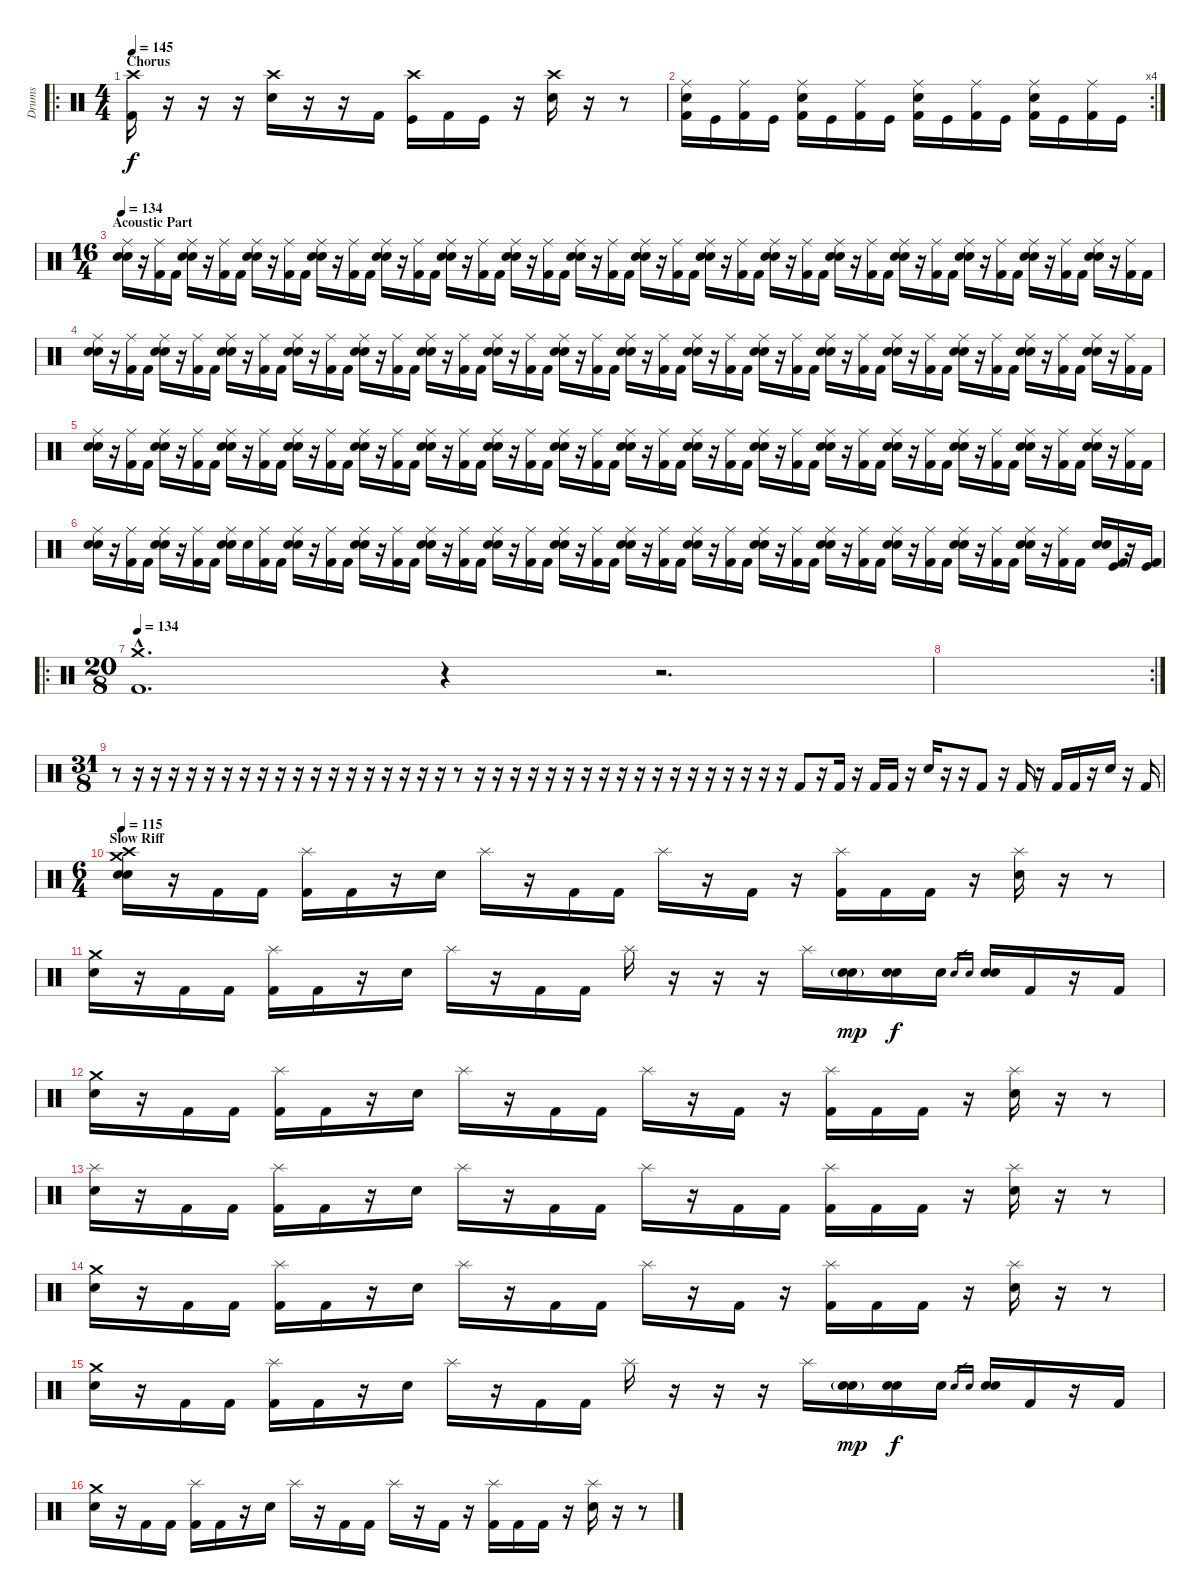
\track ("Drums" "Drums") {instrument percussion}
\staff {score}
\articulation defaults
\ro
\ts (4 4)
\section ("" "Chorus")
\tempo 145
\clef neutral
\ks c
("Kick (hit) 2" "Crash high (hit)").16{dy f} r.16 r.16 r.16 ("Electric Snare (hit)" "Crash high (hit)").16 r.16 r.16 "Kick (hit) 2".16 ("Kick (hit)" "Crash high (hit)").16 "Kick (hit) 2".16 "Kick (hit)".16 r.16 ("Electric Snare (hit)" "Crash high (hit)").16 r.16 r.8 |
\rc 4
("Kick (hit) 2" "Electric Snare (hit)" "Ride (middle)").16 "Kick (hit)".16 ("Kick (hit) 2" "Ride (middle)").16 "Kick (hit)".16 ("Kick (hit) 2" "Electric Snare (hit)" "Ride (middle)").16 "Kick (hit)".16 ("Kick (hit) 2" "Ride (middle)").16 "Kick (hit)".16 ("Kick (hit) 2" "Electric Snare (hit)" "Ride (middle)").16 "Kick (hit)".16 ("Kick (hit) 2" "Ride (middle)").16 "Kick (hit)".16 ("Kick (hit) 2" "Electric Snare (hit)" "Ride (middle)").16 "Kick (hit)".16 ("Kick (hit) 2" "Ride (middle)").16 "Kick (hit)".16 |
\ts (16 4)
\section ("" "Acoustic Part")
\tempo 134
("Electric Snare (hit)" "Electric Snare (hit)" "Ride (middle)").16 r.16 ("Kick (hit) 2" "Ride (middle)").16 "Kick (hit) 2".16 ("Electric Snare (hit)" "Electric Snare (hit)" "Ride (middle)").16 r.16 ("Kick (hit) 2" "Ride (middle)").16 "Kick (hit) 2".16 ("Electric Snare (hit)" "Electric Snare (hit)" "Ride (middle)").16 r.16 ("Kick (hit) 2" "Ride (middle)").16 "Kick (hit) 2".16 ("Electric Snare (hit)" "Electric Snare (hit)" "Ride (middle)").16 r.16 ("Kick (hit) 2" "Ride (middle)").16 "Kick (hit) 2".16 ("Electric Snare (hit)" "Electric Snare (hit)" "Ride (middle)").16 r.16 ("Kick (hit) 2" "Ride (middle)").16 "Kick (hit) 2".16 ("Electric Snare (hit)" "Electric Snare (hit)" "Ride (middle)").16 r.16 ("Kick (hit) 2" "Ride (middle)").16 "Kick (hit) 2".16 ("Electric Snare (hit)" "Electric Snare (hit)" "Ride (middle)").16 r.16 ("Kick (hit) 2" "Ride (middle)").16 "Kick (hit) 2".16 ("Electric Snare (hit)" "Electric Snare (hit)" "Ride (middle)").16 r.16 ("Kick (hit) 2" "Ride (middle)").16 "Kick (hit) 2".16 ("Electric Snare (hit)" "Electric Snare (hit)" "Ride (middle)").16 r.16 ("Kick (hit) 2" "Ride (middle)").16 "Kick (hit) 2".16 ("Electric Snare (hit)" "Electric Snare (hit)" "Ride (middle)").16 r.16 ("Kick (hit) 2" "Ride (middle)").16 "Kick (hit) 2".16 ("Electric Snare (hit)" "Electric Snare (hit)" "Ride (middle)").16 r.16 ("Kick (hit) 2" "Ride (middle)").16 "Kick (hit) 2".16 ("Electric Snare (hit)" "Electric Snare (hit)" "Ride (middle)").16 r.16 ("Kick (hit) 2" "Ride (middle)").16 "Kick (hit) 2".16 ("Electric Snare (hit)" "Electric Snare (hit)" "Ride (middle)").16 r.16 ("Kick (hit) 2" "Ride (middle)").16 "Kick (hit) 2".16 ("Electric Snare (hit)" "Electric Snare (hit)" "Ride (middle)").16 r.16 ("Kick (hit) 2" "Ride (middle)").16 "Kick (hit) 2".16 ("Electric Snare (hit)" "Electric Snare (hit)" "Ride (middle)").16 r.16 ("Kick (hit) 2" "Ride (middle)").16 "Kick (hit) 2".16 ("Electric Snare (hit)" "Electric Snare (hit)" "Ride (middle)").16 r.16 ("Kick (hit) 2" "Ride (middle)").16 "Kick (hit) 2".16 |
("Electric Snare (hit)" "Electric Snare (hit)" "Ride (middle)").16 r.16 ("Kick (hit) 2" "Ride (middle)").16 "Kick (hit) 2".16 ("Electric Snare (hit)" "Electric Snare (hit)" "Ride (middle)").16 r.16 ("Kick (hit) 2" "Ride (middle)").16 "Kick (hit) 2".16 ("Electric Snare (hit)" "Electric Snare (hit)" "Ride (middle)").16 r.16 ("Kick (hit) 2" "Ride (middle)").16 "Kick (hit) 2".16 ("Electric Snare (hit)" "Electric Snare (hit)" "Ride (middle)").16 r.16 ("Kick (hit) 2" "Ride (middle)").16 "Kick (hit) 2".16 ("Electric Snare (hit)" "Electric Snare (hit)" "Ride (middle)").16 r.16 ("Kick (hit) 2" "Ride (middle)").16 "Kick (hit) 2".16 ("Electric Snare (hit)" "Electric Snare (hit)" "Ride (middle)").16 r.16 ("Kick (hit) 2" "Ride (middle)").16 "Kick (hit) 2".16 ("Electric Snare (hit)" "Electric Snare (hit)" "Ride (middle)").16 r.16 ("Kick (hit) 2" "Ride (middle)").16 "Kick (hit) 2".16 ("Electric Snare (hit)" "Electric Snare (hit)" "Ride (middle)").16 r.16 ("Kick (hit) 2" "Ride (middle)").16 "Kick (hit) 2".16 ("Electric Snare (hit)" "Electric Snare (hit)" "Ride (middle)").16 r.16 ("Kick (hit) 2" "Ride (middle)").16 "Kick (hit) 2".16 ("Electric Snare (hit)" "Electric Snare (hit)" "Ride (middle)").16 r.16 ("Kick (hit) 2" "Ride (middle)").16 "Kick (hit) 2".16 ("Electric Snare (hit)" "Electric Snare (hit)" "Ride (middle)").16 r.16 ("Kick (hit) 2" "Ride (middle)").16 "Kick (hit) 2".16 ("Electric Snare (hit)" "Electric Snare (hit)" "Ride (middle)").16 r.16 ("Kick (hit) 2" "Ride (middle)").16 "Kick (hit) 2".16 ("Electric Snare (hit)" "Electric Snare (hit)" "Ride (middle)").16 r.16 ("Kick (hit) 2" "Ride (middle)").16 "Kick (hit) 2".16 ("Electric Snare (hit)" "Electric Snare (hit)" "Ride (middle)").16 r.16 ("Kick (hit) 2" "Ride (middle)").16 "Kick (hit) 2".16 ("Electric Snare (hit)" "Electric Snare (hit)" "Ride (middle)").16 r.16 ("Kick (hit) 2" "Ride (middle)").16 "Kick (hit) 2".16 ("Electric Snare (hit)" "Electric Snare (hit)" "Ride (middle)").16 r.16 ("Kick (hit) 2" "Ride (middle)").16 "Kick (hit) 2".16 |
("Electric Snare (hit)" "Electric Snare (hit)" "Ride (middle)").16 r.16 ("Kick (hit) 2" "Ride (middle)").16 "Kick (hit) 2".16 ("Electric Snare (hit)" "Electric Snare (hit)" "Ride (middle)").16 r.16 ("Kick (hit) 2" "Ride (middle)").16 "Kick (hit) 2".16 ("Electric Snare (hit)" "Electric Snare (hit)" "Ride (middle)").16 r.16 ("Kick (hit) 2" "Ride (middle)").16 "Kick (hit) 2".16 ("Electric Snare (hit)" "Electric Snare (hit)" "Ride (middle)").16 r.16 ("Kick (hit) 2" "Ride (middle)").16 "Kick (hit) 2".16 ("Electric Snare (hit)" "Electric Snare (hit)" "Ride (middle)").16 r.16 ("Kick (hit) 2" "Ride (middle)").16 "Kick (hit) 2".16 ("Electric Snare (hit)" "Electric Snare (hit)" "Ride (middle)").16 r.16 ("Kick (hit) 2" "Ride (middle)").16 "Kick (hit) 2".16 ("Electric Snare (hit)" "Electric Snare (hit)" "Ride (middle)").16 r.16 ("Kick (hit) 2" "Ride (middle)").16 "Kick (hit) 2".16 ("Electric Snare (hit)" "Electric Snare (hit)" "Ride (middle)").16 r.16 ("Kick (hit) 2" "Ride (middle)").16 "Kick (hit) 2".16 ("Electric Snare (hit)" "Electric Snare (hit)" "Ride (middle)").16 r.16 ("Kick (hit) 2" "Ride (middle)").16 "Kick (hit) 2".16 ("Electric Snare (hit)" "Electric Snare (hit)" "Ride (middle)").16 r.16 ("Kick (hit) 2" "Ride (middle)").16 "Kick (hit) 2".16 ("Electric Snare (hit)" "Electric Snare (hit)" "Ride (middle)").16 r.16 ("Kick (hit) 2" "Ride (middle)").16 "Kick (hit) 2".16 ("Electric Snare (hit)" "Electric Snare (hit)" "Ride (middle)").16 r.16 ("Kick (hit) 2" "Ride (middle)").16 "Kick (hit) 2".16 ("Electric Snare (hit)" "Electric Snare (hit)" "Ride (middle)").16 r.16 ("Kick (hit) 2" "Ride (middle)").16 "Kick (hit) 2".16 ("Electric Snare (hit)" "Electric Snare (hit)" "Ride (middle)").16 r.16 ("Kick (hit) 2" "Ride (middle)").16 "Kick (hit) 2".16 ("Electric Snare (hit)" "Electric Snare (hit)" "Ride (middle)").16 r.16 ("Kick (hit) 2" "Ride (middle)").16 "Kick (hit) 2".16 ("Electric Snare (hit)" "Electric Snare (hit)" "Ride (middle)").16 r.16 ("Kick (hit) 2" "Ride (middle)").16 "Kick (hit) 2".16 |
("Electric Snare (hit)" "Electric Snare (hit)" "Ride (middle)").16 r.16 ("Kick (hit) 2" "Ride (middle)").16 "Kick (hit) 2".16 ("Electric Snare (hit)" "Electric Snare (hit)" "Ride (middle)").16 r.16 ("Kick (hit) 2" "Ride (middle)").16 "Kick (hit) 2".16 ("Electric Snare (hit)" "Electric Snare (hit)" "Ride (middle)").16 "Snare (hit)".16 ("Kick (hit) 2" "Ride (middle)").16 "Kick (hit) 2".16 ("Electric Snare (hit)" "Electric Snare (hit)" "Ride (middle)").16 r.16 ("Kick (hit) 2" "Ride (middle)").16 "Kick (hit) 2".16 ("Electric Snare (hit)" "Electric Snare (hit)" "Ride (middle)").16 r.16 ("Kick (hit) 2" "Ride (middle)").16 "Kick (hit) 2".16 ("Electric Snare (hit)" "Electric Snare (hit)" "Ride (middle)").16 r.16 ("Kick (hit) 2" "Ride (middle)").16 "Kick (hit) 2".16 ("Electric Snare (hit)" "Electric Snare (hit)" "Ride (middle)").16 r.16 ("Kick (hit) 2" "Ride (middle)").16 "Kick (hit) 2".16 ("Electric Snare (hit)" "Electric Snare (hit)" "Ride (middle)").16 r.16 ("Kick (hit) 2" "Ride (middle)").16 "Kick (hit) 2".16 ("Electric Snare (hit)" "Electric Snare (hit)" "Ride (middle)").16 r.16 ("Kick (hit) 2" "Ride (middle)").16 "Kick (hit) 2".16 ("Electric Snare (hit)" "Electric Snare (hit)" "Ride (middle)").16 r.16 ("Kick (hit) 2" "Ride (middle)").16 "Kick (hit) 2".16 ("Electric Snare (hit)" "Electric Snare (hit)" "Ride (middle)").16 r.16 ("Kick (hit) 2" "Ride (middle)").16 "Kick (hit) 2".16 ("Electric Snare (hit)" "Electric Snare (hit)" "Ride (middle)").16 r.16 ("Kick (hit) 2" "Ride (middle)").16 "Kick (hit) 2".16 ("Electric Snare (hit)" "Electric Snare (hit)" "Ride (middle)").16 r.16 ("Kick (hit) 2" "Ride (middle)").16 "Kick (hit) 2".16 ("Electric Snare (hit)" "Electric Snare (hit)" "Ride (middle)").16 r.16 ("Kick (hit) 2" "Ride (middle)").16 "Kick (hit) 2".16 ("Electric Snare (hit)" "Electric Snare (hit)" "Ride (middle)").16 r.16 ("Kick (hit) 2" "Ride (middle)").16 "Kick (hit) 2".16 ("Electric Snare (hit)" "Electric Snare (hit)").16 ("Kick (hit) 2" "Kick (hit)").16 r.16 ("Kick (hit) 2" "Kick (hit)").16 |
\ro
\ts (20 8)
\tempo 134
("Crash medium (hit)"{hac} "Kick (hit) 2"{hac}).1{d} r.4 r.2{d} |
\rc 2
|
\ts (31 8)
r.8 r.16 r.16 r.16 r.16 r.16 r.16 r.16 r.16 r.16 r.16 r.16 r.16 r.16 r.16 r.16 r.16 r.16 r.16 r.8 r.16 r.16 r.16 r.16 r.16 r.16 r.16 r.16 r.16 r.16 r.16 r.16 r.16 r.16 r.16 r.16 r.16 r.16 "Kick (hit) 2".8 r.16 "Kick (hit) 2".16 r.16 "Kick (hit) 2".16 "Kick (hit) 2".16 r.16 "Electric Snare (hit)".16 r.16 r.16 "Kick (hit) 2".8 r.16 "Kick (hit) 2".16 r.16 "Kick (hit) 2".16 "Kick (hit) 2".16 r.16 "Electric Snare (hit)".16 r.16 "Kick (hit) 2".16 |
\ts (6 4)
\section ("" "Slow Riff")
\tempo 115
("Electric Snare (hit)" "Electric Snare (hit)" "Crash medium (hit)" "Crash high (hit)").16 r.16 "Kick (hit) 2".16 "Kick (hit) 2".16 ("Kick (hit) 2" "Splash (hit)").16 "Kick (hit) 2".16 r.16 "Electric Snare (hit)".16 "Splash (hit)".16 r.16 "Kick (hit) 2".16 "Kick (hit) 2".16 "Splash (hit)".16 r.16 "Kick (hit) 2".16 r.16 ("Kick (hit) 2" "Splash (hit)").16 "Kick (hit) 2".16 "Kick (hit) 2".16 r.16 ("Electric Snare (hit)" "Splash (hit)").16 r.16 r.8 |
("Electric Snare (hit)" "Crash medium (hit)").16 r.16 "Kick (hit) 2".16 "Kick (hit) 2".16 ("Kick (hit) 2" "Splash (hit)").16 "Kick (hit) 2".16 r.16 "Electric Snare (hit)".16 "Splash (hit)".16 r.16 "Kick (hit) 2".16 "Kick (hit) 2".16 "Splash (hit)".16 r.16 r.16 r.16 "Splash (hit)".16 ("Electric Snare (hit)"{g} "Electric Snare (hit)"{g}).16{dy mp} ("Electric Snare (hit)" "Electric Snare (hit)").16{dy f} "Snare (hit)".16 "Electric Snare (hit)".16{gr} "Electric Snare (hit)".16{gr} ("Electric Snare (hit)" "Electric Snare (hit)").16 "Kick (hit) 2".16 r.16 "Kick (hit) 2".16 |
("Electric Snare (hit)" "Crash medium (hit)").16 r.16 "Kick (hit) 2".16 "Kick (hit) 2".16 ("Kick (hit) 2" "Splash (hit)").16 "Kick (hit) 2".16 r.16 "Electric Snare (hit)".16 "Splash (hit)".16 r.16 "Kick (hit) 2".16 "Kick (hit) 2".16 "Splash (hit)".16 r.16 "Kick (hit) 2".16 r.16 ("Kick (hit) 2" "Splash (hit)").16 "Kick (hit) 2".16 "Kick (hit) 2".16 r.16 ("Electric Snare (hit)" "Splash (hit)").16 r.16 r.8 |
("Electric Snare (hit)" "Splash (hit)").16 r.16 "Kick (hit) 2".16 "Kick (hit) 2".16 ("Kick (hit) 2" "Splash (hit)").16 "Kick (hit) 2".16 r.16 "Electric Snare (hit)".16 "Splash (hit)".16 r.16 "Kick (hit) 2".16 "Kick (hit) 2".16 "Splash (hit)".16 r.16 "Kick (hit) 2".16 "Kick (hit) 2".16 ("Kick (hit) 2" "Splash (hit)").16 "Kick (hit) 2".16 "Kick (hit) 2".16 r.16 ("Electric Snare (hit)" "Splash (hit)").16 r.16 r.8 |
("Electric Snare (hit)" "Crash medium (hit)").16 r.16 "Kick (hit) 2".16 "Kick (hit) 2".16 ("Kick (hit) 2" "Splash (hit)").16 "Kick (hit) 2".16 r.16 "Electric Snare (hit)".16 "Splash (hit)".16 r.16 "Kick (hit) 2".16 "Kick (hit) 2".16 "Splash (hit)".16 r.16 "Kick (hit) 2".16 r.16 ("Kick (hit) 2" "Splash (hit)").16 "Kick (hit) 2".16 "Kick (hit) 2".16 r.16 ("Electric Snare (hit)" "Splash (hit)").16 r.16 r.8 |
("Electric Snare (hit)" "Crash medium (hit)").16 r.16 "Kick (hit) 2".16 "Kick (hit) 2".16 ("Kick (hit) 2" "Splash (hit)").16 "Kick (hit) 2".16 r.16 "Electric Snare (hit)".16 "Splash (hit)".16 r.16 "Kick (hit) 2".16 "Kick (hit) 2".16 "Splash (hit)".16 r.16 r.16 r.16 "Splash (hit)".16 ("Electric Snare (hit)"{g} "Electric Snare (hit)"{g}).16{dy mp} ("Electric Snare (hit)" "Electric Snare (hit)").16{dy f} "Snare (hit)".16 "Electric Snare (hit)".16{gr} "Electric Snare (hit)".16{gr} ("Electric Snare (hit)" "Electric Snare (hit)").16 "Kick (hit) 2".16 r.16 "Kick (hit) 2".16 |
("Electric Snare (hit)" "Crash medium (hit)").16 r.16 "Kick (hit) 2".16 "Kick (hit) 2".16 ("Kick (hit) 2" "Splash (hit)").16 "Kick (hit) 2".16 r.16 "Electric Snare (hit)".16 "Splash (hit)".16 r.16 "Kick (hit) 2".16 "Kick (hit) 2".16 "Splash (hit)".16 r.16 "Kick (hit) 2".16 r.16 ("Kick (hit) 2" "Splash (hit)").16 "Kick (hit) 2".16 "Kick (hit) 2".16 r.16 ("Electric Snare (hit)" "Splash (hit)").16 r.16 r.8
